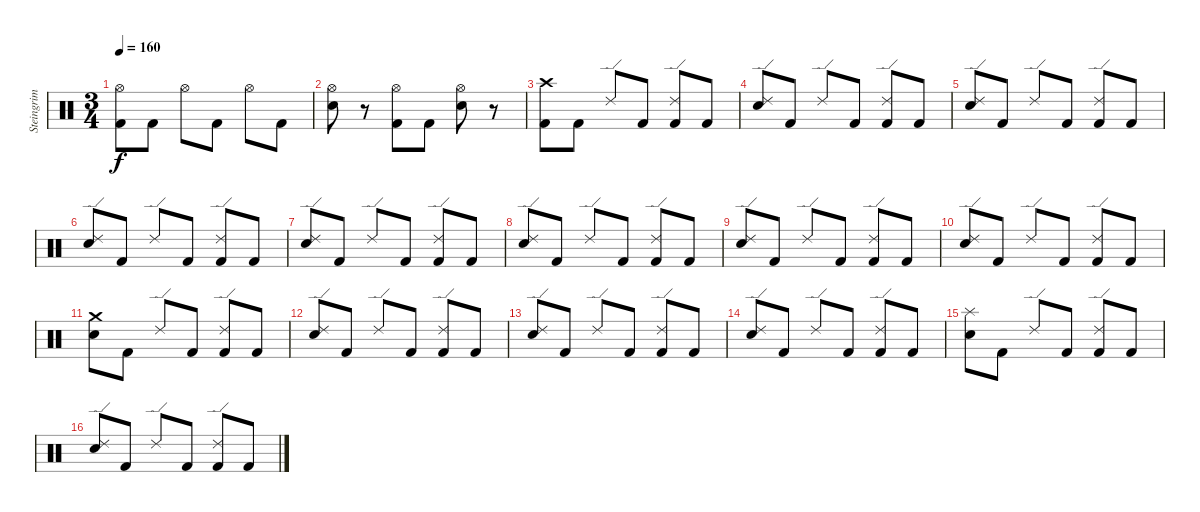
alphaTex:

\track ("Steingrim Trommur" "Steingrim ") {instrument percussion}
\staff {score}
\articulation defaults
\ts (3 4)
\tempo 160
\clef neutral
\ks c
("Hi-Hat (open)" "Kick (hit) 2").8{dy f} "Kick (hit) 2".8 "Hi-Hat (open)".8 "Kick (hit) 2".8 "Hi-Hat (open)".8 "Kick (hit) 2".8 |
("Hi-Hat (open)" "Electric Snare (hit)").8 r.8 ("Hi-Hat (open)" "Kick (hit) 2").8 "Kick (hit) 2".8 ("Hi-Hat (open)" "Electric Snare (hit)").8 r.8 |
("Crash high (hit)" "Kick (hit) 2").8 "Kick (hit) 2".8 "Ride (edge) 2".8 "Kick (hit) 2".8 ("Ride (edge) 2" "Kick (hit) 2").8 "Kick (hit) 2".8 |
("Ride (edge) 2" "Electric Snare (hit)").8 "Kick (hit) 2".8 "Ride (edge) 2".8 "Kick (hit) 2".8 ("Ride (edge) 2" "Kick (hit) 2").8 "Kick (hit) 2".8 |
("Ride (edge) 2" "Electric Snare (hit)").8 "Kick (hit) 2".8 "Ride (edge) 2".8 "Kick (hit) 2".8 ("Ride (edge) 2" "Kick (hit) 2").8 "Kick (hit) 2".8 |
("Ride (edge) 2" "Electric Snare (hit)").8 "Kick (hit) 2".8 "Ride (edge) 2".8 "Kick (hit) 2".8 ("Ride (edge) 2" "Kick (hit) 2").8 "Kick (hit) 2".8 |
("Ride (edge) 2" "Electric Snare (hit)").8 "Kick (hit) 2".8 "Ride (edge) 2".8 "Kick (hit) 2".8 ("Ride (edge) 2" "Kick (hit) 2").8 "Kick (hit) 2".8 |
("Ride (edge) 2" "Electric Snare (hit)").8 "Kick (hit) 2".8 "Ride (edge) 2".8 "Kick (hit) 2".8 ("Ride (edge) 2" "Kick (hit) 2").8 "Kick (hit) 2".8 |
("Ride (edge) 2" "Electric Snare (hit)").8 "Kick (hit) 2".8 "Ride (edge) 2".8 "Kick (hit) 2".8 ("Ride (edge) 2" "Kick (hit) 2").8 "Kick (hit) 2".8 |
("Ride (edge) 2" "Electric Snare (hit)").8 "Kick (hit) 2".8 "Ride (edge) 2".8 "Kick (hit) 2".8 ("Ride (edge) 2" "Kick (hit) 2").8 "Kick (hit) 2".8 |
("Crash medium (hit)" "Electric Snare (hit)").8 "Kick (hit) 2".8 "Ride (edge) 2".8 "Kick (hit) 2".8 ("Ride (edge) 2" "Kick (hit) 2").8 "Kick (hit) 2".8 |
("Ride (edge) 2" "Electric Snare (hit)").8 "Kick (hit) 2".8 "Ride (edge) 2".8 "Kick (hit) 2".8 ("Ride (edge) 2" "Kick (hit) 2").8 "Kick (hit) 2".8 |
("Ride (edge) 2" "Electric Snare (hit)").8 "Kick (hit) 2".8 "Ride (edge) 2".8 "Kick (hit) 2".8 ("Ride (edge) 2" "Kick (hit) 2").8 "Kick (hit) 2".8 |
("Ride (edge) 2" "Electric Snare (hit)").8 "Kick (hit) 2".8 "Ride (edge) 2".8 "Kick (hit) 2".8 ("Ride (edge) 2" "Kick (hit) 2").8 "Kick (hit) 2".8 |
("Splash (hit)" "Electric Snare (hit)").8 "Kick (hit) 2".8 "Ride (edge) 2".8 "Kick (hit) 2".8 ("Ride (edge) 2" "Kick (hit) 2").8 "Kick (hit) 2".8 |
("Ride (edge) 2" "Electric Snare (hit)").8 "Kick (hit) 2".8 "Ride (edge) 2".8 "Kick (hit) 2".8 ("Ride (edge) 2" "Kick (hit) 2").8 "Kick (hit) 2".8
